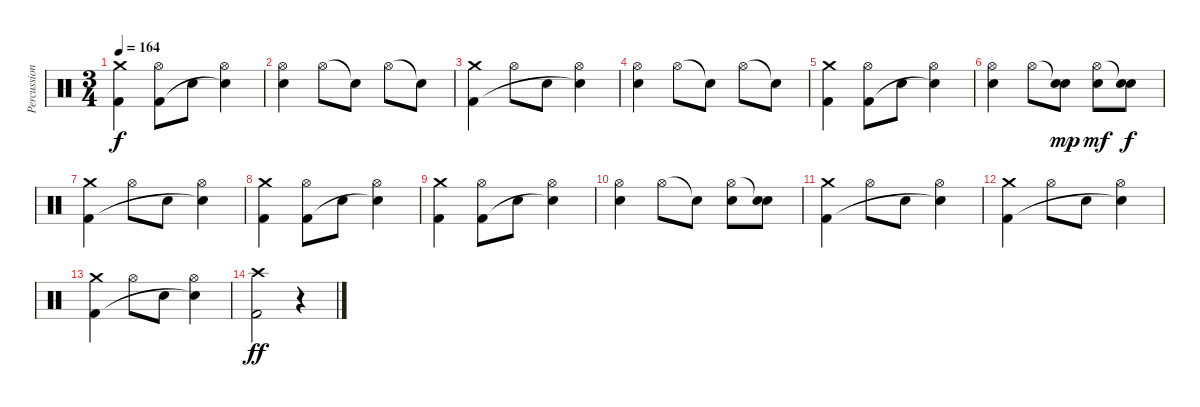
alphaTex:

\track ("Percussion" "Percussion") {instrument percussion}
\staff {score}
\articulation defaults
\ts (3 4)
\tempo 164
\clef neutral
\ks c
("Crash medium (hit)" "Kick (hit) 2").4{dy f} ("Hi-Hat (open)" "Kick (hit) 2").8 "Snare (hit) 2".8 ("Hi-Hat (open)" "Snare (hit) 2"{t}).4 |
("Hi-Hat (open)" "Snare (hit) 2").4 "Hi-Hat (open)".8 "Snare (hit)"{t}.8 "Hi-Hat (open)".8 "Snare (hit)"{t}.8 |
("Crash medium (hit)" "Kick (hit) 2").4 "Hi-Hat (open)".8 "Snare (hit) 2".8 ("Hi-Hat (open)" "Snare (hit) 2"{t}).4 |
("Hi-Hat (open)" "Snare (hit) 2").4 "Hi-Hat (open)".8 "Snare (hit)"{t}.8 "Hi-Hat (open)".8 "Snare (hit)"{t}.8 |
("Crash medium (hit)" "Kick (hit) 2").4 ("Hi-Hat (open)" "Kick (hit) 2").8 "Snare (hit) 2".8 ("Hi-Hat (open)" "Snare (hit) 2"{t}).4 |
("Hi-Hat (open)" "Snare (hit) 2").4 "Hi-Hat (open)".8 ("Snare (hit)"{t} "Snare (hit) 2").8{dy mp} ("Hi-Hat (open)" "Snare (hit) 2").8{dy mf} ("Snare (hit)"{t} "Snare (hit) 2").8{dy f} |
("Crash medium (hit)" "Kick (hit) 2").4 "Hi-Hat (open)".8 "Snare (hit) 2".8 ("Hi-Hat (open)" "Snare (hit) 2"{t}).4 |
("Crash medium (hit)" "Kick (hit) 2").4 ("Hi-Hat (open)" "Kick (hit) 2").8 "Snare (hit) 2".8 ("Hi-Hat (open)" "Snare (hit) 2"{t}).4 |
("Crash medium (hit)" "Kick (hit) 2").4 ("Hi-Hat (open)" "Kick (hit) 2").8 "Snare (hit) 2".8 ("Hi-Hat (open)" "Snare (hit) 2"{t}).4 |
("Hi-Hat (open)" "Snare (hit) 2").4 "Hi-Hat (open)".8 "Snare (hit)"{t}.8 ("Hi-Hat (open)" "Snare (hit) 2").8 ("Snare (hit)"{t} "Snare (hit) 2").8 |
("Crash medium (hit)" "Kick (hit) 2").4 "Hi-Hat (open)".8 "Snare (hit) 2".8 ("Hi-Hat (open)" "Snare (hit) 2"{t}).4 |
("Crash medium (hit)" "Kick (hit) 2").4 "Hi-Hat (open)".8 "Snare (hit) 2".8 ("Hi-Hat (open)" "Snare (hit) 2"{t}).4 |
("Crash medium (hit)" "Kick (hit) 2").4 "Hi-Hat (open)".8 "Snare (hit) 2".8 ("Hi-Hat (open)" "Snare (hit) 2"{t}).4 |
("Crash high (hit)" "Kick (hit) 2").2{dy ff} r.4
